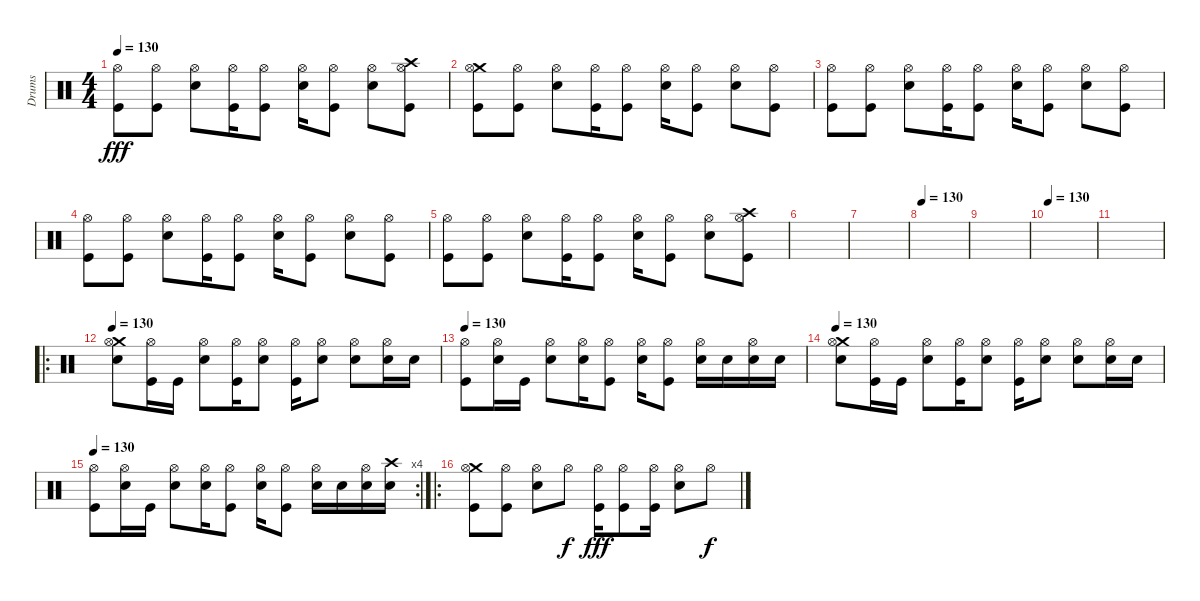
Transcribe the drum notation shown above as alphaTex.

\track ("Drums" "Drums") {instrument percussion}
\staff {score}
\articulation defaults
\ts (4 4)
\tempo 130
\clef neutral
\ks c
("Kick (hit)" "Hi-Hat (open)").8{dy fff} ("Kick (hit)" "Hi-Hat (open)").8 ("Snare (hit) 2" "Hi-Hat (open)").8 ("Kick (hit)" "Hi-Hat (open)").16 ("Kick (hit)" "Hi-Hat (open)").8 ("Snare (hit) 2" "Hi-Hat (open)").16 ("Kick (hit)" "Hi-Hat (open)").8 ("Snare (hit) 2" "Hi-Hat (open)").8 ("Crash high (hit)" "Kick (hit)" "Hi-Hat (open)").8 |
("Crash medium (hit)" "Kick (hit)" "Hi-Hat (open)").8 ("Kick (hit)" "Hi-Hat (open)").8 ("Snare (hit) 2" "Hi-Hat (open)").8 ("Kick (hit)" "Hi-Hat (open)").16 ("Kick (hit)" "Hi-Hat (open)").8 ("Snare (hit) 2" "Hi-Hat (open)").16 ("Kick (hit)" "Hi-Hat (open)").8 ("Snare (hit) 2" "Hi-Hat (open)").8 ("Kick (hit)" "Hi-Hat (open)").8 |
("Kick (hit)" "Hi-Hat (open)").8 ("Kick (hit)" "Hi-Hat (open)").8 ("Snare (hit) 2" "Hi-Hat (open)").8 ("Kick (hit)" "Hi-Hat (open)").16 ("Kick (hit)" "Hi-Hat (open)").8 ("Snare (hit) 2" "Hi-Hat (open)").16 ("Kick (hit)" "Hi-Hat (open)").8 ("Snare (hit) 2" "Hi-Hat (open)").8 ("Kick (hit)" "Hi-Hat (open)").8 |
("Kick (hit)" "Hi-Hat (open)").8 ("Kick (hit)" "Hi-Hat (open)").8 ("Snare (hit) 2" "Hi-Hat (open)").8 ("Kick (hit)" "Hi-Hat (open)").16 ("Kick (hit)" "Hi-Hat (open)").8 ("Snare (hit) 2" "Hi-Hat (open)").16 ("Kick (hit)" "Hi-Hat (open)").8 ("Snare (hit) 2" "Hi-Hat (open)").8 ("Kick (hit)" "Hi-Hat (open)").8 |
("Kick (hit)" "Hi-Hat (open)").8 ("Kick (hit)" "Hi-Hat (open)").8 ("Snare (hit) 2" "Hi-Hat (open)").8 ("Kick (hit)" "Hi-Hat (open)").16 ("Kick (hit)" "Hi-Hat (open)").8 ("Snare (hit) 2" "Hi-Hat (open)").16 ("Kick (hit)" "Hi-Hat (open)").8 ("Snare (hit) 2" "Hi-Hat (open)").8 ("Crash high (hit)" "Kick (hit)" "Hi-Hat (open)").8 |
|
|
\tempo 130
|
|
\tempo 130
|
|
\ro
\tempo 130
("Crash medium (hit)" "Snare (hit) 2" "Hi-Hat (open)").8 ("Kick (hit)" "Hi-Hat (open)").16 "Kick (hit)".16 ("Snare (hit) 2" "Hi-Hat (open)").8 ("Kick (hit)" "Hi-Hat (open)").16 ("Snare (hit) 2" "Hi-Hat (open)").8 ("Kick (hit)" "Hi-Hat (open)").16 ("Snare (hit) 2" "Hi-Hat (open)").8 ("Snare (hit) 2" "Hi-Hat (open)").8 ("Snare (hit) 2" "Hi-Hat (open)").16 "Snare (hit) 2".16 |
\tempo 130
("Kick (hit)" "Hi-Hat (open)").8 ("Snare (hit) 2" "Hi-Hat (open)").16 "Kick (hit)".16 ("Snare (hit) 2" "Hi-Hat (open)").8 ("Snare (hit) 2" "Hi-Hat (open)").16 ("Kick (hit)" "Hi-Hat (open)").8 ("Snare (hit) 2" "Hi-Hat (open)").16 ("Kick (hit)" "Hi-Hat (open)").8 ("Snare (hit) 2" "Hi-Hat (open)").16 "Snare (hit) 2".16 ("Snare (hit) 2" "Hi-Hat (open)").16 "Snare (hit) 2".16 |
\tempo 130
("Crash medium (hit)" "Snare (hit) 2" "Hi-Hat (open)").8 ("Kick (hit)" "Hi-Hat (open)").16 "Kick (hit)".16 ("Snare (hit) 2" "Hi-Hat (open)").8 ("Kick (hit)" "Hi-Hat (open)").16 ("Snare (hit) 2" "Hi-Hat (open)").8 ("Kick (hit)" "Hi-Hat (open)").16 ("Snare (hit) 2" "Hi-Hat (open)").8 ("Snare (hit) 2" "Hi-Hat (open)").8 ("Snare (hit) 2" "Hi-Hat (open)").16 "Snare (hit) 2".16 |
\rc 4
\tempo 130
("Kick (hit)" "Hi-Hat (open)").8 ("Snare (hit) 2" "Hi-Hat (open)").16 "Kick (hit)".16 ("Snare (hit) 2" "Hi-Hat (open)").8 ("Snare (hit) 2" "Hi-Hat (open)").16 ("Kick (hit)" "Hi-Hat (open)").8 ("Snare (hit) 2" "Hi-Hat (open)").16 ("Kick (hit)" "Hi-Hat (open)").8 ("Snare (hit) 2" "Hi-Hat (open)").16 "Snare (hit) 2".16 ("Snare (hit) 2" "Hi-Hat (open)").16 ("Crash high (hit)" "Snare (hit) 2").16 |
\ro
("Crash medium (hit)" "Kick (hit)" "Hi-Hat (open)").8 ("Kick (hit)" "Hi-Hat (open)").8 ("Snare (hit) 2" "Hi-Hat (open)").8 "Hi-Hat (open)".8{dy f} ("Kick (hit)" "Hi-Hat (open)").16{dy fff} ("Kick (hit)" "Hi-Hat (open)").8 ("Kick (hit)" "Hi-Hat (open)").16 ("Snare (hit) 2" "Hi-Hat (open)").8 "Hi-Hat (open)".8{dy f}
